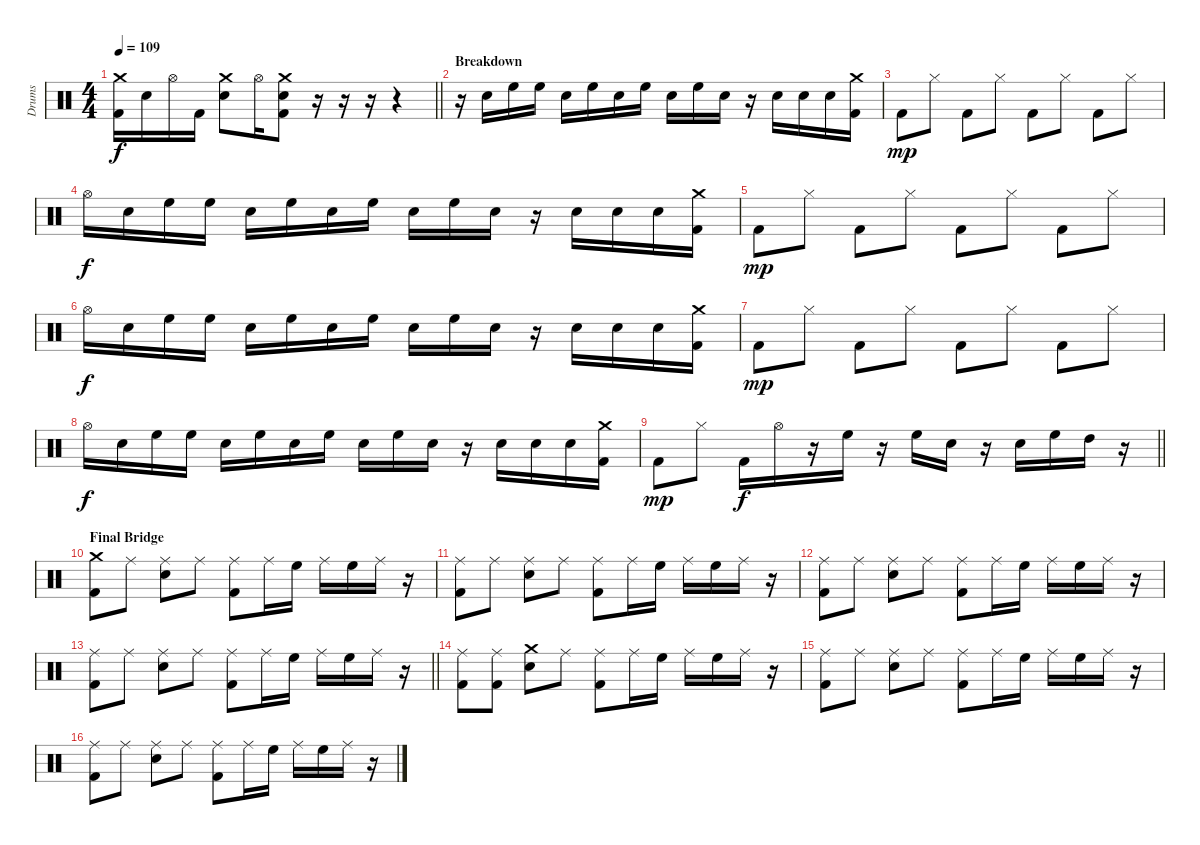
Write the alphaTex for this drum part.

\track ("Drums" "Drums") {instrument percussion}
\staff {score}
\articulation defaults
\ts (4 4)
\tempo 109
\clef neutral
\barLineRight lightlight
\ks c
("Crash medium (hit)" "Kick (hit) 2").16{dy f} "Electric Snare (hit)".16 "Hi-Hat (open)".16 "Kick (hit) 2".16 ("Crash medium (hit)" "Electric Snare (hit)").8 "Hi-Hat (open)".16 ("Crash medium (hit)" "Electric Snare (hit)" "Kick (hit) 2").8 r.16 r.16 r.16 r.4 |
\section ("" "Breakdown")
r.16 "Electric Snare (hit)".16 "High Floor Tom (hit)".16 "High Floor Tom (hit)".16 "Electric Snare (hit)".16 "High Floor Tom (hit)".16 "Electric Snare (hit)".16 "High Floor Tom (hit)".16 "Electric Snare (hit)".16 "High Floor Tom (hit)".16 "Electric Snare (hit)".16 r.16 "Electric Snare (hit)".16 "Electric Snare (hit)".16 "Electric Snare (hit)".16 ("Crash medium (hit)" "Kick (hit) 2").16 |
"Kick (hit) 2".8{dy mp} "Hi-Hat (closed)".8 "Kick (hit) 2".8 "Hi-Hat (closed)".8 "Kick (hit) 2".8 "Hi-Hat (closed)".8 "Kick (hit) 2".8 "Hi-Hat (closed)".8 |
"Hi-Hat (open)".16{dy f} "Electric Snare (hit)".16 "High Floor Tom (hit)".16 "High Floor Tom (hit)".16 "Electric Snare (hit)".16 "High Floor Tom (hit)".16 "Electric Snare (hit)".16 "High Floor Tom (hit)".16 "Electric Snare (hit)".16 "High Floor Tom (hit)".16 "Electric Snare (hit)".16 r.16 "Electric Snare (hit)".16 "Electric Snare (hit)".16 "Electric Snare (hit)".16 ("Crash medium (hit)" "Kick (hit) 2").16 |
"Kick (hit) 2".8{dy mp} "Hi-Hat (closed)".8 "Kick (hit) 2".8 "Hi-Hat (closed)".8 "Kick (hit) 2".8 "Hi-Hat (closed)".8 "Kick (hit) 2".8 "Hi-Hat (closed)".8 |
"Hi-Hat (open)".16{dy f} "Electric Snare (hit)".16 "High Floor Tom (hit)".16 "High Floor Tom (hit)".16 "Electric Snare (hit)".16 "High Floor Tom (hit)".16 "Electric Snare (hit)".16 "High Floor Tom (hit)".16 "Electric Snare (hit)".16 "High Floor Tom (hit)".16 "Electric Snare (hit)".16 r.16 "Electric Snare (hit)".16 "Electric Snare (hit)".16 "Electric Snare (hit)".16 ("Crash medium (hit)" "Kick (hit) 2").16 |
"Kick (hit) 2".8{dy mp} "Hi-Hat (closed)".8 "Kick (hit) 2".8 "Hi-Hat (closed)".8 "Kick (hit) 2".8 "Hi-Hat (closed)".8 "Kick (hit) 2".8 "Hi-Hat (closed)".8 |
"Hi-Hat (open)".16{dy f} "Electric Snare (hit)".16 "High Floor Tom (hit)".16 "High Floor Tom (hit)".16 "Electric Snare (hit)".16 "High Floor Tom (hit)".16 "Electric Snare (hit)".16 "High Floor Tom (hit)".16 "Electric Snare (hit)".16 "High Floor Tom (hit)".16 "Electric Snare (hit)".16 r.16 "Electric Snare (hit)".16 "Electric Snare (hit)".16 "Electric Snare (hit)".16 ("Crash medium (hit)" "Kick (hit) 2").16 |
\barLineRight lightlight "Kick (hit) 2".8{dy mp} "Hi-Hat (closed)".8 "Kick (hit) 2".16{dy f} "Hi-Hat (open)".16
r.16 "High Floor Tom (hit)".16 r.16 "High Floor Tom (hit)".16 "Electric Snare (hit)".16 r.16 "Electric Snare (hit)".16 "High Floor Tom (hit)".16 "High Tom (hit)".16 r.16 |
\section ("" "Final Bridge")
("Crash medium (hit)" "Kick (hit) 2").8 "Ride (middle)".8 ("Ride (middle)" "Electric Snare (hit)").8 "Ride (middle)".8 ("Ride (middle)" "Kick (hit) 2").8 "Ride (middle)".16 "High Floor Tom (hit)".16 "Ride (middle)".16 "High Floor Tom (hit)".16 "Ride (middle)".16 r.16 |
("Ride (middle)" "Kick (hit) 2").8 "Ride (middle)".8 ("Ride (middle)" "Electric Snare (hit)").8 "Ride (middle)".8 ("Ride (middle)" "Kick (hit) 2").8 "Ride (middle)".16 "High Floor Tom (hit)".16 "Ride (middle)".16 "High Floor Tom (hit)".16 "Ride (middle)".16 r.16 |
("Ride (middle)" "Kick (hit) 2").8 "Ride (middle)".8 ("Ride (middle)" "Electric Snare (hit)").8 "Ride (middle)".8 ("Ride (middle)" "Kick (hit) 2").8 "Ride (middle)".16 "High Floor Tom (hit)".16 "Ride (middle)".16 "High Floor Tom (hit)".16 "Ride (middle)".16 r.16 |
\barLineRight lightlight
("Ride (middle)" "Kick (hit) 2").8 "Ride (middle)".8 ("Ride (middle)" "Electric Snare (hit)").8 "Ride (middle)".8 ("Ride (middle)" "Kick (hit) 2").8 "Ride (middle)".16 "High Floor Tom (hit)".16 "Ride (middle)".16 "High Floor Tom (hit)".16 "Ride (middle)".16 r.16 |
("Ride (middle)" "Kick (hit) 2").8 ("Ride (middle)" "Kick (hit) 2").8 ("Crash medium (hit)" "Electric Snare (hit)").8 "Ride (middle)".8 ("Ride (middle)" "Kick (hit) 2").8 "Ride (middle)".16 "High Floor Tom (hit)".16 "Ride (middle)".16 "High Floor Tom (hit)".16 "Ride (middle)".16 r.16 |
("Ride (middle)" "Kick (hit) 2").8 "Ride (middle)".8 ("Ride (middle)" "Electric Snare (hit)").8 "Ride (middle)".8 ("Ride (middle)" "Kick (hit) 2").8 "Ride (middle)".16 "High Floor Tom (hit)".16 "Ride (middle)".16 "High Floor Tom (hit)".16 "Ride (middle)".16 r.16 |
("Ride (middle)" "Kick (hit) 2").8 "Ride (middle)".8 ("Ride (middle)" "Electric Snare (hit)").8 "Ride (middle)".8 ("Ride (middle)" "Kick (hit) 2").8 "Ride (middle)".16 "High Floor Tom (hit)".16 "Ride (middle)".16 "High Floor Tom (hit)".16 "Ride (middle)".16 r.16
